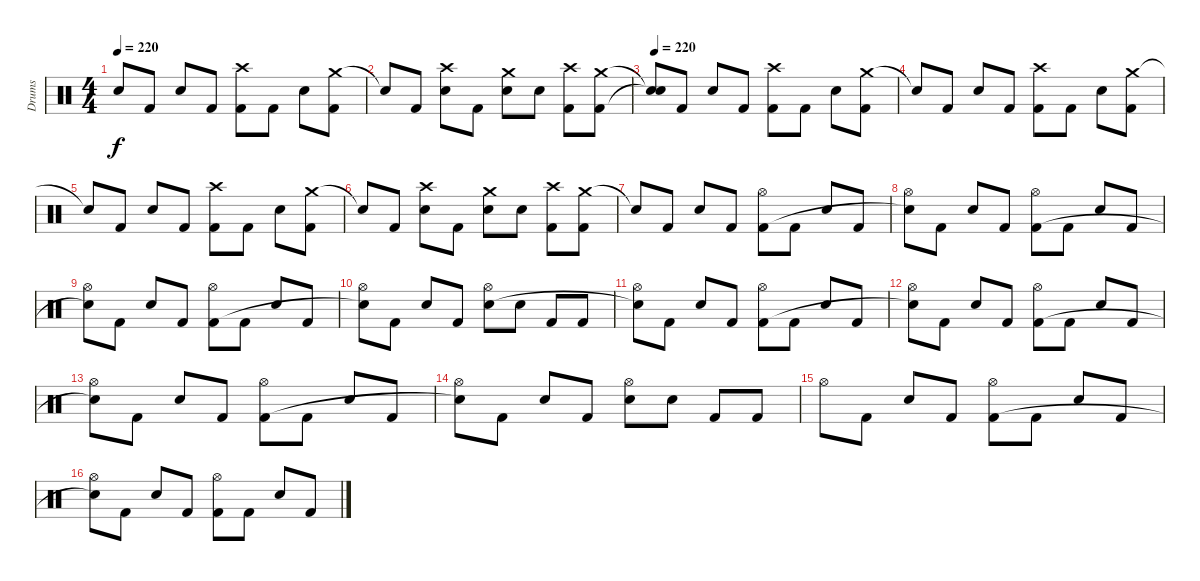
\track ("Drums" "Drums") {instrument percussion}
\staff {score}
\articulation defaults
\ts (4 4)
\tempo 220
\clef neutral
\ks c "Snare (hit)"{t}.8{dy f} "Kick (hit) 2".8 "Electric Snare (hit)".8 "Kick (hit) 2".8
("Crash high (hit)" "Kick (hit) 2").8 "Kick (hit) 2".8 "Electric Snare (hit)".8 ("Crash medium (hit)" "Kick (hit) 2").8 |
"Snare (hit)"{t}.8 "Kick (hit) 2".8 ("Crash high (hit)" "Electric Snare (hit)").8 "Kick (hit) 2".8 ("Crash medium (hit)" "Electric Snare (hit)").8 "Electric Snare (hit)".8 ("Crash high (hit)" "Kick (hit) 2").8 ("Crash medium (hit)" "Kick (hit) 2").8 |
\tempo 220
("Snare (hit)"{t} "Snare (hit)"{t}).8 "Kick (hit) 2".8 "Electric Snare (hit)".8 "Kick (hit) 2".8 ("Crash high (hit)" "Kick (hit) 2").8 "Kick (hit) 2".8 "Electric Snare (hit)".8 ("Crash medium (hit)" "Kick (hit) 2").8 |
"Snare (hit)"{t}.8 "Kick (hit) 2".8 "Electric Snare (hit)".8 "Kick (hit) 2".8 ("Crash high (hit)" "Kick (hit) 2").8 "Kick (hit) 2".8 "Electric Snare (hit)".8 ("Crash medium (hit)" "Kick (hit) 2").8 |
"Snare (hit)"{t}.8 "Kick (hit) 2".8 "Electric Snare (hit)".8 "Kick (hit) 2".8 ("Crash high (hit)" "Kick (hit) 2").8 "Kick (hit) 2".8 "Electric Snare (hit)".8 ("Crash medium (hit)" "Kick (hit) 2").8 |
"Snare (hit)"{t}.8 "Kick (hit) 2".8 ("Crash high (hit)" "Electric Snare (hit)").8 "Kick (hit) 2".8 ("Crash medium (hit)" "Electric Snare (hit)").8 "Electric Snare (hit)".8 ("Crash high (hit)" "Kick (hit) 2").8 ("Crash medium (hit)" "Kick (hit) 2").8 |
"Snare (hit)"{t}.8 "Kick (hit) 2".8 "Electric Snare (hit)".8 "Kick (hit) 2".8 ("Hi-Hat (open)" "Kick (hit) 2").8 "Kick (hit) 2".8 "Electric Snare (hit)".8 "Kick (hit) 2".8 |
("Hi-Hat (open)" "Snare (hit)"{t}).8 "Kick (hit) 2".8 "Electric Snare (hit)".8 "Kick (hit) 2".8 ("Hi-Hat (open)" "Kick (hit) 2").8 "Kick (hit) 2".8 "Electric Snare (hit)".8 "Kick (hit) 2".8 |
("Hi-Hat (open)" "Snare (hit)"{t}).8 "Kick (hit) 2".8 "Electric Snare (hit)".8 "Kick (hit) 2".8 ("Hi-Hat (open)" "Kick (hit) 2").8 "Kick (hit) 2".8 "Electric Snare (hit)".8 "Kick (hit) 2".8 |
("Hi-Hat (open)" "Snare (hit)"{t}).8 "Kick (hit) 2".8 "Electric Snare (hit)".8 "Kick (hit) 2".8 ("Hi-Hat (open)" "Electric Snare (hit)").8 "Electric Snare (hit)".8 "Kick (hit) 2".8 "Kick (hit) 2".8 |
("Hi-Hat (open)" "Snare (hit)"{t}).8 "Kick (hit) 2".8 "Electric Snare (hit)".8 "Kick (hit) 2".8 ("Hi-Hat (open)" "Kick (hit) 2").8 "Kick (hit) 2".8 "Electric Snare (hit)".8 "Kick (hit) 2".8 |
("Hi-Hat (open)" "Snare (hit)"{t}).8 "Kick (hit) 2".8 "Electric Snare (hit)".8 "Kick (hit) 2".8 ("Hi-Hat (open)" "Kick (hit) 2").8 "Kick (hit) 2".8 "Electric Snare (hit)".8 "Kick (hit) 2".8 |
("Hi-Hat (open)" "Snare (hit)"{t}).8 "Kick (hit) 2".8 "Electric Snare (hit)".8 "Kick (hit) 2".8 ("Hi-Hat (open)" "Kick (hit) 2").8 "Kick (hit) 2".8 "Electric Snare (hit)".8 "Kick (hit) 2".8 |
("Hi-Hat (open)" "Snare (hit)"{t}).8 "Kick (hit) 2".8 "Electric Snare (hit)".8 "Kick (hit) 2".8 ("Hi-Hat (open)" "Electric Snare (hit)").8 "Electric Snare (hit)".8 "Kick (hit) 2".8 "Kick (hit) 2".8 |
"Hi-Hat (open)".8 "Kick (hit) 2".8 "Electric Snare (hit)".8 "Kick (hit) 2".8 ("Hi-Hat (open)" "Kick (hit) 2").8 "Kick (hit) 2".8 "Electric Snare (hit)".8 "Kick (hit) 2".8 |
("Hi-Hat (open)" "Snare (hit)"{t}).8 "Kick (hit) 2".8 "Electric Snare (hit)".8 "Kick (hit) 2".8 ("Hi-Hat (open)" "Kick (hit) 2").8 "Kick (hit) 2".8 "Electric Snare (hit)".8 "Kick (hit) 2".8
